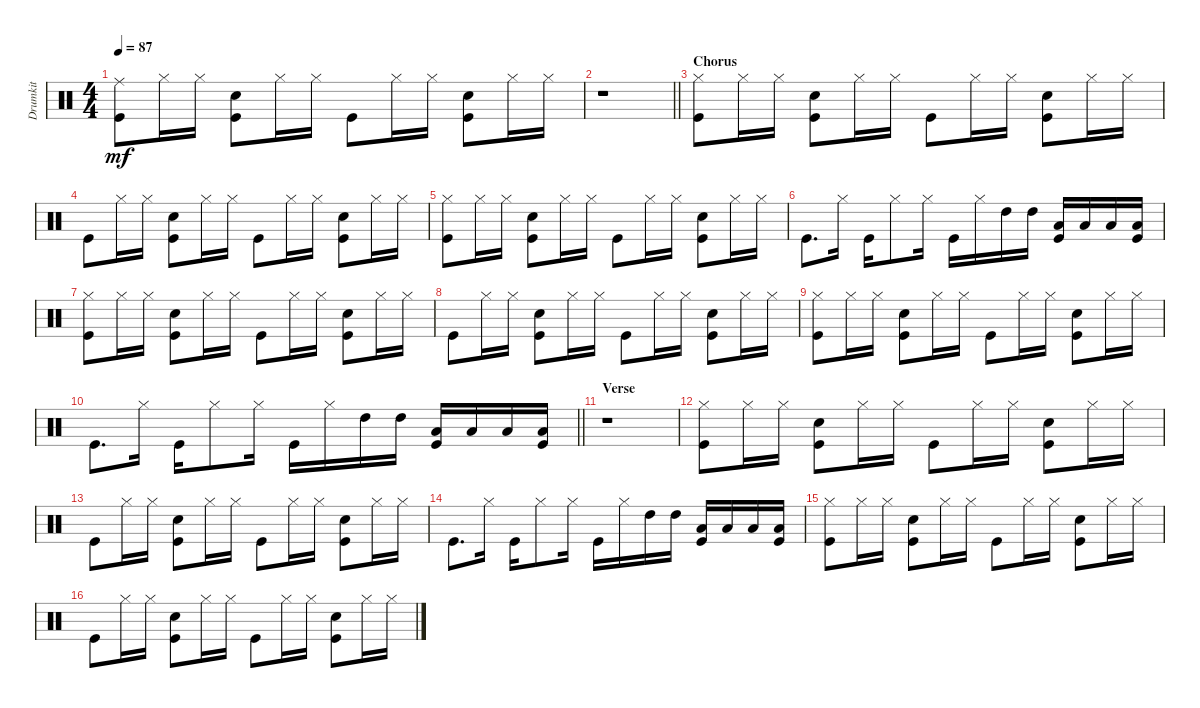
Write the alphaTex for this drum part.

\track ("Drumkit" "Drumkit") {instrument percussion}
\staff {score}
\articulation defaults
\ts (4 4)
\tempo 87
\clef neutral
\ks c
("Kick (hit)" "Ride (middle)").8{dy mf} "Hi-Hat (closed)".16 "Hi-Hat (closed)".16 ("Kick (hit)" "Snare (hit) 2").8 "Hi-Hat (closed)".16 "Hi-Hat (closed)".16 "Kick (hit)".8 "Hi-Hat (closed)".16 "Hi-Hat (closed)".16 ("Snare (hit) 2" "Kick (hit)").8 "Hi-Hat (closed)".16 "Hi-Hat (closed)".16 |
\barLineRight lightlight
r.1 |
\section ("" "Chorus")
("Kick (hit)" "Hi-Hat (closed)").8 "Hi-Hat (closed)".16 "Hi-Hat (closed)".16 ("Kick (hit)" "Snare (hit) 2").8 "Hi-Hat (closed)".16 "Hi-Hat (closed)".16 "Kick (hit)".8 "Hi-Hat (closed)".16 "Hi-Hat (closed)".16 ("Snare (hit) 2" "Kick (hit)").8 "Hi-Hat (closed)".16 "Hi-Hat (closed)".16 |
"Kick (hit)".8 "Hi-Hat (closed)".16 "Hi-Hat (closed)".16 ("Kick (hit)" "Snare (hit) 2").8 "Hi-Hat (closed)".16 "Hi-Hat (closed)".16 "Kick (hit)".8 "Hi-Hat (closed)".16 "Hi-Hat (closed)".16 ("Kick (hit)" "Snare (hit) 2").8 "Hi-Hat (closed)".16 "Hi-Hat (closed)".16 |
("Kick (hit)" "Hi-Hat (closed)").8 "Hi-Hat (closed)".16 "Hi-Hat (closed)".16 ("Kick (hit)" "Snare (hit) 2").8 "Hi-Hat (closed)".16 "Hi-Hat (closed)".16 "Kick (hit)".8 "Hi-Hat (closed)".16 "Hi-Hat (closed)".16 ("Snare (hit) 2" "Kick (hit)").8 "Hi-Hat (closed)".16 "Hi-Hat (closed)".16 |
"Kick (hit)".8{d} "Hi-Hat (closed)".16 "Kick (hit)".16 "Hi-Hat (closed)".8 "Hi-Hat (closed)".16 "Kick (hit)".16 "Hi-Hat (closed)".16 "High Tom (hit)".16 "High Tom (hit)".16 ("Kick (hit)" "Low Tom (hit)").16 "Low Tom (hit)".16 "Low Floor Tom (hit)".16 ("Kick (hit)" "Low Floor Tom (hit)").16 |
("Kick (hit)" "Hi-Hat (closed)").8 "Hi-Hat (closed)".16 "Hi-Hat (closed)".16 ("Kick (hit)" "Snare (hit) 2").8 "Hi-Hat (closed)".16 "Hi-Hat (closed)".16 "Kick (hit)".8 "Hi-Hat (closed)".16 "Hi-Hat (closed)".16 ("Snare (hit) 2" "Kick (hit)").8 "Hi-Hat (closed)".16 "Hi-Hat (closed)".16 |
"Kick (hit)".8 "Hi-Hat (closed)".16 "Hi-Hat (closed)".16 ("Kick (hit)" "Snare (hit) 2").8 "Hi-Hat (closed)".16 "Hi-Hat (closed)".16 "Kick (hit)".8 "Hi-Hat (closed)".16 "Hi-Hat (closed)".16 ("Kick (hit)" "Snare (hit) 2").8 "Hi-Hat (closed)".16 "Hi-Hat (closed)".16 |
("Kick (hit)" "Hi-Hat (closed)").8 "Hi-Hat (closed)".16 "Hi-Hat (closed)".16 ("Kick (hit)" "Snare (hit) 2").8 "Hi-Hat (closed)".16 "Hi-Hat (closed)".16 "Kick (hit)".8 "Hi-Hat (closed)".16 "Hi-Hat (closed)".16 ("Snare (hit) 2" "Kick (hit)").8 "Hi-Hat (closed)".16 "Hi-Hat (closed)".16 |
\barLineRight lightlight "Kick (hit)".8{d} "Hi-Hat (closed)".16 "Kick (hit)".16 "Hi-Hat (closed)".8 "Hi-Hat (closed)".16 "Kick (hit)".16 "Hi-Hat (closed)".16 "High Tom (hit)".16 "High Tom (hit)".16
("Kick (hit)" "Low Tom (hit)").16 "Low Tom (hit)".16 "Low Floor Tom (hit)".16 ("Kick (hit)" "Low Floor Tom (hit)").16 |
\section ("" "Verse")
r.1 |
("Kick (hit)" "Hi-Hat (closed)").8 "Hi-Hat (closed)".16 "Hi-Hat (closed)".16 ("Kick (hit)" "Snare (hit) 2").8 "Hi-Hat (closed)".16 "Hi-Hat (closed)".16 "Kick (hit)".8 "Hi-Hat (closed)".16 "Hi-Hat (closed)".16 ("Snare (hit) 2" "Kick (hit)").8 "Hi-Hat (closed)".16 "Hi-Hat (closed)".16 |
"Kick (hit)".8 "Hi-Hat (closed)".16 "Hi-Hat (closed)".16 ("Kick (hit)" "Snare (hit) 2").8 "Hi-Hat (closed)".16 "Hi-Hat (closed)".16 "Kick (hit)".8 "Hi-Hat (closed)".16 "Hi-Hat (closed)".16 ("Kick (hit)" "Snare (hit) 2").8 "Hi-Hat (closed)".16 "Hi-Hat (closed)".16 |
"Kick (hit)".8{d} "Hi-Hat (closed)".16 "Kick (hit)".16 "Hi-Hat (closed)".8 "Hi-Hat (closed)".16 "Kick (hit)".16 "Hi-Hat (closed)".16 "High Tom (hit)".16 "High Tom (hit)".16 ("Kick (hit)" "Low Tom (hit)").16 "Low Tom (hit)".16 "Low Floor Tom (hit)".16 ("Kick (hit)" "Low Floor Tom (hit)").16 |
("Kick (hit)" "Hi-Hat (closed)").8 "Hi-Hat (closed)".16 "Hi-Hat (closed)".16 ("Kick (hit)" "Snare (hit) 2").8 "Hi-Hat (closed)".16 "Hi-Hat (closed)".16 "Kick (hit)".8 "Hi-Hat (closed)".16 "Hi-Hat (closed)".16 ("Snare (hit) 2" "Kick (hit)").8 "Hi-Hat (closed)".16 "Hi-Hat (closed)".16 |
"Kick (hit)".8 "Hi-Hat (closed)".16 "Hi-Hat (closed)".16 ("Kick (hit)" "Snare (hit) 2").8 "Hi-Hat (closed)".16 "Hi-Hat (closed)".16 "Kick (hit)".8 "Hi-Hat (closed)".16 "Hi-Hat (closed)".16 ("Kick (hit)" "Snare (hit) 2").8 "Hi-Hat (closed)".16 "Hi-Hat (closed)".16
